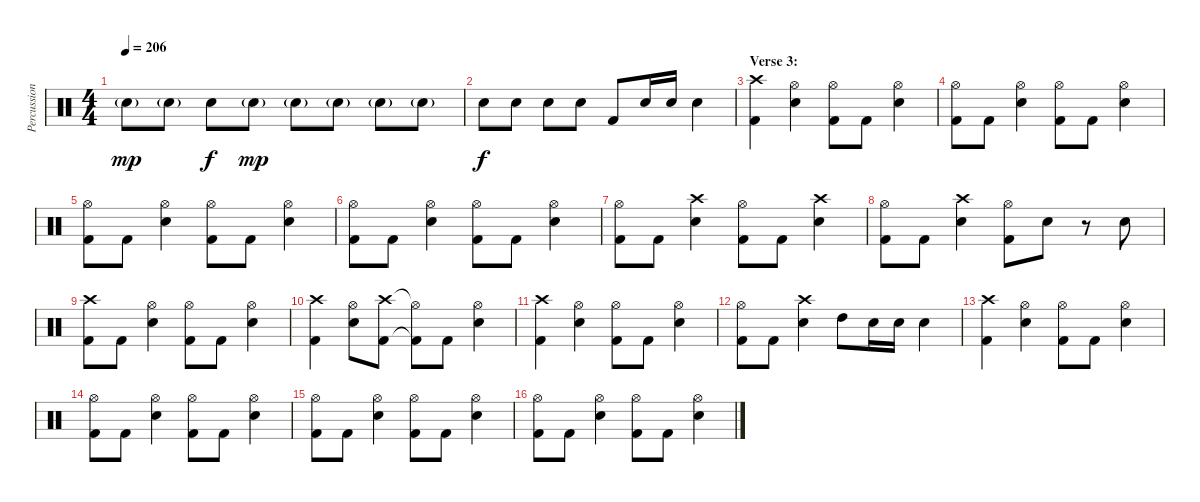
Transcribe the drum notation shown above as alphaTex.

\track ("Percussion" "Percussion") {instrument percussion}
\staff {score}
\articulation defaults
\ts (4 4)
\tempo 206
\clef neutral
\ks c "Snare (hit) 2"{g}.8{dy mp} "Snare (hit) 2"{g}.8 "Snare (hit) 2".8{dy f} "Snare (hit) 2"{g}.8{dy mp} "Snare (hit) 2"{g}.8 "Snare (hit) 2"{g}.8 "Snare (hit) 2"{g}.8 "Snare (hit) 2"{g}.8
|
"Snare (hit) 2".8{dy f} "Snare (hit) 2".8 "Snare (hit) 2".8 "Snare (hit) 2".8 "Kick (hit) 2".8 "Snare (hit) 2".16 "Snare (hit) 2".16 "Snare (hit) 2".4 |
\section ("" "Verse 3:")
("Crash high (hit)" "Kick (hit) 2").4 ("Hi-Hat (open)" "Snare (hit) 2").4 ("Hi-Hat (open)" "Kick (hit) 2").8 "Kick (hit) 2".8 ("Hi-Hat (open)" "Snare (hit) 2").4 |
("Hi-Hat (open)" "Kick (hit) 2").8 "Kick (hit) 2".8 ("Hi-Hat (open)" "Snare (hit) 2").4 ("Hi-Hat (open)" "Kick (hit) 2").8 "Kick (hit) 2".8 ("Hi-Hat (open)" "Snare (hit) 2").4 |
("Hi-Hat (open)" "Kick (hit) 2").8 "Kick (hit) 2".8 ("Hi-Hat (open)" "Snare (hit) 2").4 ("Hi-Hat (open)" "Kick (hit) 2").8 "Kick (hit) 2".8 ("Hi-Hat (open)" "Snare (hit) 2").4 |
("Hi-Hat (open)" "Kick (hit) 2").8 "Kick (hit) 2".8 ("Hi-Hat (open)" "Snare (hit) 2").4 ("Hi-Hat (open)" "Kick (hit) 2").8 "Kick (hit) 2".8 ("Hi-Hat (open)" "Snare (hit) 2").4 |
("Hi-Hat (open)" "Kick (hit) 2").8 "Kick (hit) 2".8 ("Crash high (hit)" "Snare (hit) 2").4 ("Hi-Hat (open)" "Kick (hit) 2").8 "Kick (hit) 2".8 ("Crash high (hit)" "Snare (hit) 2").4 |
("Hi-Hat (open)" "Kick (hit) 2").8 "Kick (hit) 2".8 ("Crash high (hit)" "Snare (hit) 2").4 ("Hi-Hat (open)" "Kick (hit) 2").8 "Snare (hit) 2".8 r.8 "Snare (hit) 2".8 |
("Crash high (hit)" "Kick (hit) 2").8 "Kick (hit) 2".8 ("Hi-Hat (open)" "Snare (hit) 2").4 ("Hi-Hat (open)" "Kick (hit) 2").8 "Kick (hit) 2".8 ("Hi-Hat (open)" "Snare (hit) 2").4 |
("Crash high (hit)" "Kick (hit) 2").4 ("Hi-Hat (open)" "Snare (hit) 2").8 ("Crash high (hit)" "Kick (hit) 2").8 ("Hi-Hat (open)"{t} "Kick (hit) 2"{t}).8 "Kick (hit) 2".8 ("Hi-Hat (open)" "Snare (hit) 2").4 |
("Crash high (hit)" "Kick (hit) 2").4 ("Hi-Hat (open)" "Snare (hit) 2").4 ("Hi-Hat (open)" "Kick (hit) 2").8 "Kick (hit) 2".8 ("Hi-Hat (open)" "Snare (hit) 2").4 |
("Hi-Hat (open)" "Kick (hit) 2").8 "Kick (hit) 2".8 ("Crash high (hit)" "Snare (hit) 2").4 "High Tom (hit)".8 "Snare (hit) 2".16 "Snare (hit) 2".16 "Snare (hit) 2".4 |
("Crash high (hit)" "Kick (hit) 2").4 ("Hi-Hat (open)" "Snare (hit) 2").4 ("Hi-Hat (open)" "Kick (hit) 2").8 "Kick (hit) 2".8 ("Hi-Hat (open)" "Snare (hit) 2").4 |
("Hi-Hat (open)" "Kick (hit) 2").8 "Kick (hit) 2".8 ("Hi-Hat (open)" "Snare (hit) 2").4 ("Hi-Hat (open)" "Kick (hit) 2").8 "Kick (hit) 2".8 ("Hi-Hat (open)" "Snare (hit) 2").4 |
("Hi-Hat (open)" "Kick (hit) 2").8 "Kick (hit) 2".8 ("Hi-Hat (open)" "Snare (hit) 2").4 ("Hi-Hat (open)" "Kick (hit) 2").8 "Kick (hit) 2".8 ("Hi-Hat (open)" "Snare (hit) 2").4 |
("Hi-Hat (open)" "Kick (hit) 2").8 "Kick (hit) 2".8 ("Hi-Hat (open)" "Snare (hit) 2").4 ("Hi-Hat (open)" "Kick (hit) 2").8 "Kick (hit) 2".8 ("Hi-Hat (open)" "Snare (hit) 2").4
